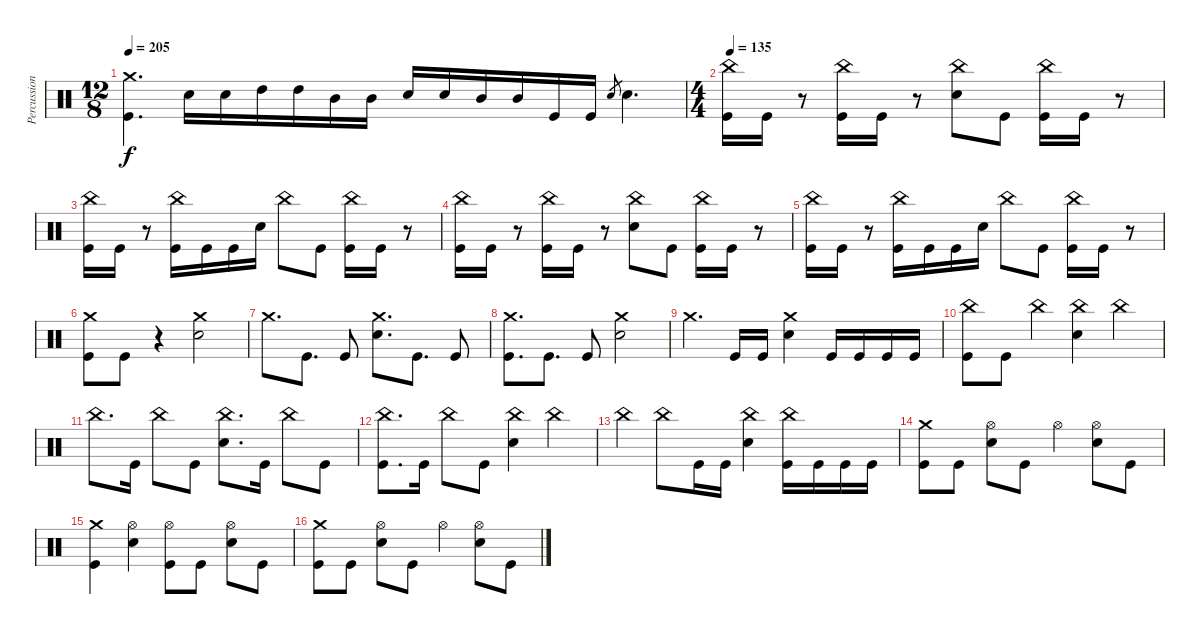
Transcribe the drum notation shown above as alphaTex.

\track ("Percussion" "Percussion") {instrument percussion}
\staff {score}
\articulation defaults
\ts (12 8)
\tempo 205
\clef neutral
\ks c
("Crash medium (hit)" "Kick (hit)").4{d dy f} "Snare (hit) 2".16 "Snare (hit) 2".16 "High Tom (hit)".16 "High Tom (hit)".16 "Mid Tom (hit)".16 "Mid Tom (hit)".16 "Snare (hit) 2".16 "Snare (hit) 2".16 "Mid Tom (hit)".16 "Mid Tom (hit)".16 "Kick (hit)".16 "Kick (hit)".16 "Snare (hit) 2".8{gr} "Snare (hit) 2".4{d} |
\ts (4 4)
\tempo 135
("China (hit)" "Kick (hit)").16 "Kick (hit)".16 r.8 ("China (hit)" "Kick (hit)").16 "Kick (hit)".16 r.8 ("China (hit)" "Snare (hit) 2").8 "Kick (hit)".8 ("China (hit)" "Kick (hit)").16 "Kick (hit)".16 r.8 |
("China (hit)" "Kick (hit)").16 "Kick (hit)".16 r.8 ("China (hit)" "Kick (hit)").16 "Kick (hit)".16 "Kick (hit)".16 "Snare (hit) 2".16 "China (hit)".8 "Kick (hit)".8 ("China (hit)" "Kick (hit)").16 "Kick (hit)".16 r.8 |
("China (hit)" "Kick (hit)").16 "Kick (hit)".16 r.8 ("China (hit)" "Kick (hit)").16 "Kick (hit)".16 r.8 ("China (hit)" "Snare (hit) 2").8 "Kick (hit)".8 ("China (hit)" "Kick (hit)").16 "Kick (hit)".16 r.8 |
("China (hit)" "Kick (hit)").16 "Kick (hit)".16 r.8 ("China (hit)" "Kick (hit)").16 "Kick (hit)".16 "Kick (hit)".16 "Snare (hit) 2".16 "China (hit)".8 "Kick (hit)".8 ("China (hit)" "Kick (hit)").16 "Kick (hit)".16 r.8 |
("Crash medium (hit)" "Kick (hit)").8 "Kick (hit)".8 r.4 ("Crash medium (hit)" "Snare (hit) 2").2 |
"Crash medium (hit)".8{d} "Kick (hit)".8{d} "Kick (hit)".8 ("Crash medium (hit)" "Snare (hit) 2").8{d} "Kick (hit)".8{d} "Kick (hit)".8 |
("Crash medium (hit)" "Kick (hit)").8{d} "Kick (hit)".8{d} "Kick (hit)".8 ("Crash medium (hit)" "Snare (hit) 2").2 |
"Crash medium (hit)".4{d} "Kick (hit)".16 "Kick (hit)".16 ("Crash medium (hit)" "Snare (hit) 2").4 "Kick (hit)".16 "Kick (hit)".16 "Kick (hit)".16 "Kick (hit)".16 |
("China (hit)" "Kick (hit)").8 "Kick (hit)".8 "China (hit)".4 ("China (hit)" "Snare (hit) 2").4 "China (hit)".4 |
"China (hit)".8{d} "Kick (hit)".16 "China (hit)".8 "Kick (hit)".8 ("China (hit)" "Snare (hit) 2").8{d} "Kick (hit)".16 "China (hit)".8 "Kick (hit)".8 |
("China (hit)" "Kick (hit)").8{d} "Kick (hit)".16 "China (hit)".8 "Kick (hit)".8 ("China (hit)" "Snare (hit) 2").4 "China (hit)".4 |
"China (hit)".4 "China (hit)".8 "Kick (hit)".16 "Kick (hit)".16 ("China (hit)" "Snare (hit) 2").4 ("China (hit)" "Kick (hit)").16 "Kick (hit)".16 "Kick (hit)".16 "Kick (hit)".16 |
("Crash medium (hit)" "Kick (hit)").8 "Kick (hit)".8 ("Hi-Hat (open)" "Snare (hit) 2").8 "Kick (hit)".8 "Hi-Hat (open)".4 ("Hi-Hat (open)" "Snare (hit) 2").8 "Kick (hit)".8 |
("Crash medium (hit)" "Kick (hit)").4 ("Hi-Hat (open)" "Snare (hit) 2").4 ("Hi-Hat (open)" "Kick (hit)").8 "Kick (hit)".8 ("Hi-Hat (open)" "Snare (hit) 2").8 "Kick (hit)".8 |
("Crash medium (hit)" "Kick (hit)").8 "Kick (hit)".8 ("Hi-Hat (open)" "Snare (hit) 2").8 "Kick (hit)".8 "Hi-Hat (open)".4 ("Hi-Hat (open)" "Snare (hit) 2").8 "Kick (hit)".8
